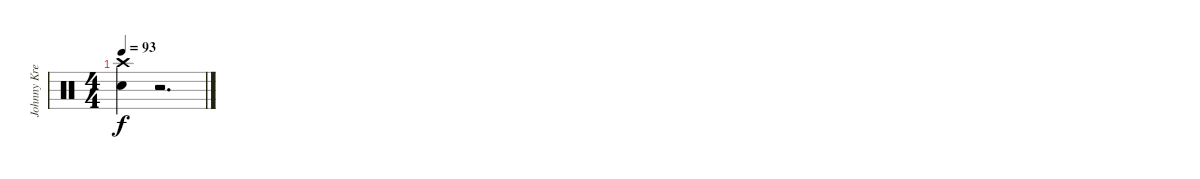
\track ("Johnny Kreis" "Johnny Kre") {instrument percussion}
\staff {score}
\articulation defaults
\ts (4 4)
\tempo 93
\clef neutral
\ks c
("Crash high (hit)" "Snare (hit) 2").4{dy f} r.2{d}
